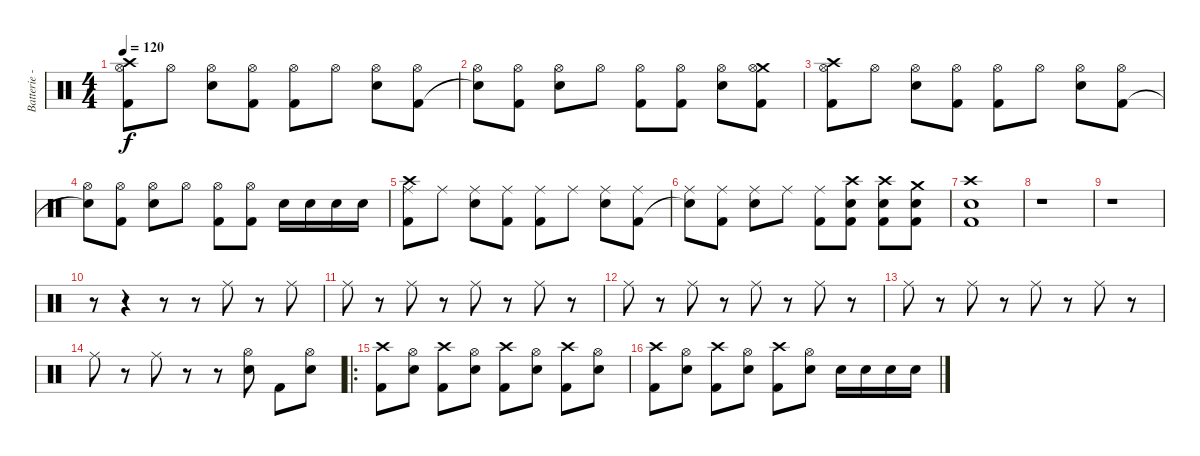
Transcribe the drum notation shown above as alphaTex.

\track ("Batterie - Joe" "Batterie -") {instrument percussion}
\staff {score}
\articulation defaults
\ts (4 4)
\tempo 120
\clef neutral
\ks c
("Crash high (hit)" "Hi-Hat (open)" "Kick (hit) 2").8{dy f} "Hi-Hat (open)".8 ("Hi-Hat (open)" "Electric Snare (hit)").8 ("Hi-Hat (open)" "Kick (hit) 2").8 ("Hi-Hat (open)" "Kick (hit) 2").8 "Hi-Hat (open)".8 ("Hi-Hat (open)" "Electric Snare (hit)").8 ("Hi-Hat (open)" "Kick (hit) 2").8 |
("Hi-Hat (open)" "Snare (hit)"{t}).8 ("Hi-Hat (open)" "Kick (hit) 2").8 ("Hi-Hat (open)" "Electric Snare (hit)").8 "Hi-Hat (open)".8 ("Hi-Hat (open)" "Kick (hit) 2").8 ("Hi-Hat (open)" "Kick (hit) 2").8 ("Hi-Hat (open)" "Electric Snare (hit)").8 ("Crash medium (hit)" "Hi-Hat (open)" "Kick (hit) 2").8 |
("Crash high (hit)" "Hi-Hat (open)" "Kick (hit) 2").8 "Hi-Hat (open)".8 ("Hi-Hat (open)" "Electric Snare (hit)").8 ("Hi-Hat (open)" "Kick (hit) 2").8 ("Hi-Hat (open)" "Kick (hit) 2").8 "Hi-Hat (open)".8 ("Hi-Hat (open)" "Electric Snare (hit)").8 ("Hi-Hat (open)" "Kick (hit) 2").8 |
("Hi-Hat (open)" "Snare (hit)"{t}).8 ("Hi-Hat (open)" "Kick (hit) 2").8 ("Hi-Hat (open)" "Electric Snare (hit)").8 "Hi-Hat (open)".8 ("Hi-Hat (open)" "Kick (hit) 2").8 ("Hi-Hat (open)" "Kick (hit) 2").8 "Electric Snare (hit)".16 "Electric Snare (hit)".16 "Electric Snare (hit)".16 "Electric Snare (hit)".16 |
("Crash high (hit)" "Ride (middle)" "Kick (hit) 2").8 "Ride (middle)".8 ("Ride (middle)" "Electric Snare (hit)").8 ("Ride (middle)" "Kick (hit) 2").8 ("Ride (middle)" "Kick (hit) 2").8 "Ride (middle)".8 ("Ride (middle)" "Electric Snare (hit)").8 ("Ride (middle)" "Kick (hit) 2").8 |
("Ride (middle)" "Snare (hit)"{t}).8 ("Ride (middle)" "Kick (hit) 2").8 ("Ride (middle)" "Electric Snare (hit)").8 "Ride (middle)".8 ("Ride (middle)" "Kick (hit) 2").8 ("Crash high (hit)" "Electric Snare (hit)" "Kick (hit) 2").8 ("Crash high (hit)" "Electric Snare (hit)" "Kick (hit) 2").8 ("Crash medium (hit)" "Electric Snare (hit)" "Kick (hit) 2").8 |
("Crash high (hit)" "Electric Snare (hit)" "Kick (hit) 2").1 |
r.1 |
r.1 |
r.8 r.4 r.8 r.8 "Ride (middle)".8 r.8 "Ride (middle)".8 |
"Ride (middle)".8 r.8 "Ride (middle)".8 r.8 "Ride (middle)".8 r.8 "Ride (middle)".8 r.8 |
"Ride (middle)".8 r.8 "Ride (middle)".8 r.8 "Ride (middle)".8 r.8 "Ride (middle)".8 r.8 |
"Ride (middle)".8 r.8 "Ride (middle)".8 r.8 "Ride (middle)".8 r.8 "Ride (middle)".8 r.8 |
"Ride (middle)".8 r.8 "Ride (middle)".8 r.8 r.8 ("Hi-Hat (open)" "Electric Snare (hit)").8 "Kick (hit) 2".8 ("Hi-Hat (open)" "Electric Snare (hit)").8 |
\ro
("Crash high (hit)" "Kick (hit) 2").8 ("Hi-Hat (open)" "Electric Snare (hit)").8 ("Crash high (hit)" "Kick (hit) 2").8 ("Hi-Hat (open)" "Electric Snare (hit)").8 ("Crash high (hit)" "Kick (hit) 2").8 ("Hi-Hat (open)" "Electric Snare (hit)").8 ("Crash high (hit)" "Kick (hit) 2").8 ("Hi-Hat (open)" "Electric Snare (hit)").8 |
("Crash high (hit)" "Kick (hit) 2").8 ("Hi-Hat (open)" "Electric Snare (hit)").8 ("Crash high (hit)" "Kick (hit) 2").8 ("Hi-Hat (open)" "Electric Snare (hit)").8 ("Crash high (hit)" "Kick (hit) 2").8 ("Hi-Hat (open)" "Electric Snare (hit)").8 "Electric Snare (hit)".16 "Electric Snare (hit)".16 "Electric Snare (hit)".16 "Electric Snare (hit)".16
